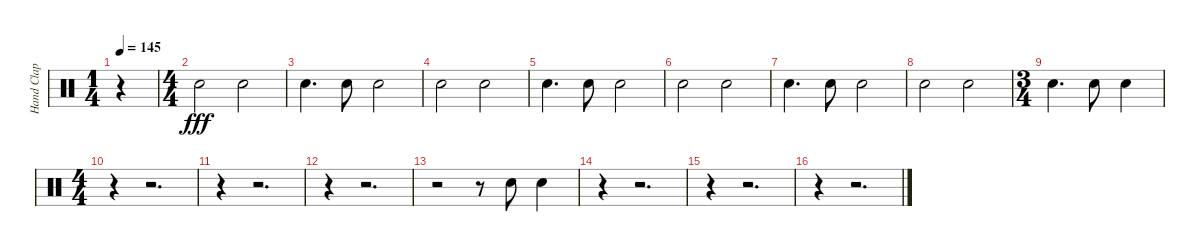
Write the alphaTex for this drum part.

\track ("Hand Clap" "Hand Clap") {instrument percussion}
\staff {score}
\articulation defaults
\ts (1 4)
\tempo 145
\clef neutral
\ks c
r.4{dy fff} |
\ts (4 4)
"Hand Clap (hit)".2 "Hand Clap (hit)".2 |
"Hand Clap (hit)".4{d} "Hand Clap (hit)".8 "Hand Clap (hit)".2 |
"Hand Clap (hit)".2 "Hand Clap (hit)".2 |
"Hand Clap (hit)".4{d} "Hand Clap (hit)".8 "Hand Clap (hit)".2 |
"Hand Clap (hit)".2 "Hand Clap (hit)".2 |
"Hand Clap (hit)".4{d} "Hand Clap (hit)".8 "Hand Clap (hit)".2 |
"Hand Clap (hit)".2 "Hand Clap (hit)".2 |
\ts (3 4)
"Hand Clap (hit)".4{d} "Hand Clap (hit)".8 "Hand Clap (hit)".4 |
\ts (4 4)
r.4 r.2{d} |
r.4 r.2{d} |
r.4 r.2{d} |
r.2 r.8 "Hand Clap (hit)".8 "Hand Clap (hit)".4 |
r.4 r.2{d} |
r.4 r.2{d} |
r.4 r.2{d}
